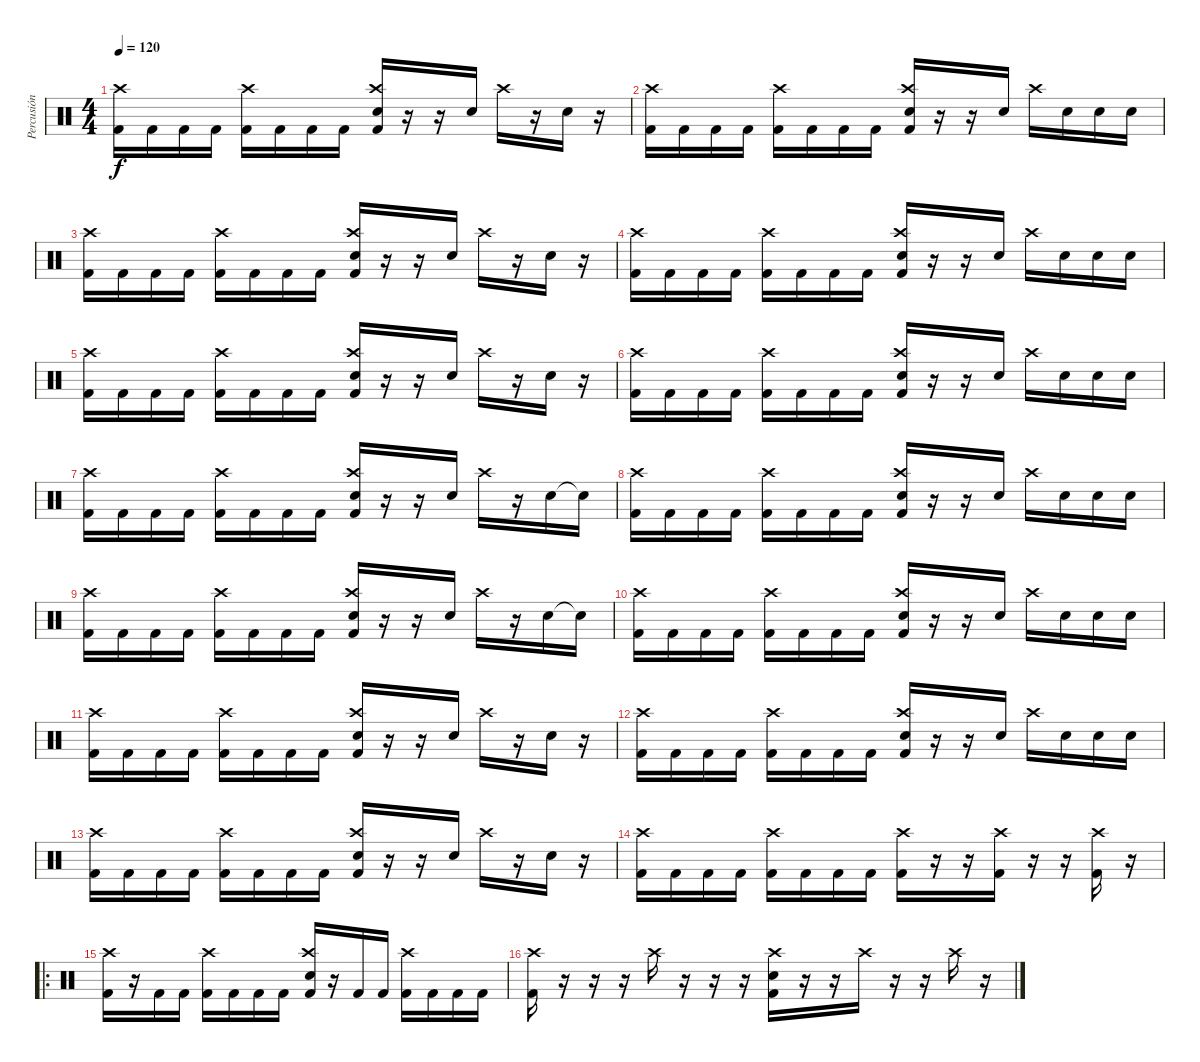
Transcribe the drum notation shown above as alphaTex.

\track ("Percusión" "Percusión") {instrument percussion}
\staff {score}
\articulation defaults
\ts (4 4)
\tempo 120
\clef neutral
\ks c
("Kick (hit) 2" "Crash high (hit)").16{dy f} "Kick (hit) 2".16 "Kick (hit) 2".16 "Kick (hit) 2".16 ("Kick (hit) 2" "Crash high (hit)").16 "Kick (hit) 2".16 "Kick (hit) 2".16 "Kick (hit) 2".16 ("Kick (hit) 2" "Crash high (hit)" "Electric Snare (hit)").16 r.16 r.16 "Electric Snare (hit)".16 "Crash high (hit)".16 r.16 "Electric Snare (hit)".16 r.16 |
("Kick (hit) 2" "Crash high (hit)").16 "Kick (hit) 2".16 "Kick (hit) 2".16 "Kick (hit) 2".16 ("Kick (hit) 2" "Crash high (hit)").16 "Kick (hit) 2".16 "Kick (hit) 2".16 "Kick (hit) 2".16 ("Kick (hit) 2" "Crash high (hit)" "Electric Snare (hit)").16 r.16 r.16 "Electric Snare (hit)".16 "Crash high (hit)".16 "Electric Snare (hit)".16 "Electric Snare (hit)".16 "Electric Snare (hit)".16 |
("Kick (hit) 2" "Crash high (hit)").16 "Kick (hit) 2".16 "Kick (hit) 2".16 "Kick (hit) 2".16 ("Kick (hit) 2" "Crash high (hit)").16 "Kick (hit) 2".16 "Kick (hit) 2".16 "Kick (hit) 2".16 ("Kick (hit) 2" "Crash high (hit)" "Electric Snare (hit)").16 r.16 r.16 "Electric Snare (hit)".16 "Crash high (hit)".16 r.16 "Electric Snare (hit)".16 r.16 |
("Kick (hit) 2" "Crash high (hit)").16 "Kick (hit) 2".16 "Kick (hit) 2".16 "Kick (hit) 2".16 ("Kick (hit) 2" "Crash high (hit)").16 "Kick (hit) 2".16 "Kick (hit) 2".16 "Kick (hit) 2".16 ("Kick (hit) 2" "Crash high (hit)" "Electric Snare (hit)").16 r.16 r.16 "Electric Snare (hit)".16 "Crash high (hit)".16 "Electric Snare (hit)".16 "Electric Snare (hit)".16 "Electric Snare (hit)".16 |
("Kick (hit) 2" "Crash high (hit)").16 "Kick (hit) 2".16 "Kick (hit) 2".16 "Kick (hit) 2".16 ("Kick (hit) 2" "Crash high (hit)").16 "Kick (hit) 2".16 "Kick (hit) 2".16 "Kick (hit) 2".16 ("Kick (hit) 2" "Crash high (hit)" "Electric Snare (hit)").16 r.16 r.16 "Electric Snare (hit)".16 "Crash high (hit)".16 r.16 "Electric Snare (hit)".16 r.16 |
("Kick (hit) 2" "Crash high (hit)").16 "Kick (hit) 2".16 "Kick (hit) 2".16 "Kick (hit) 2".16 ("Kick (hit) 2" "Crash high (hit)").16 "Kick (hit) 2".16 "Kick (hit) 2".16 "Kick (hit) 2".16 ("Kick (hit) 2" "Crash high (hit)" "Electric Snare (hit)").16 r.16 r.16 "Electric Snare (hit)".16 "Crash high (hit)".16 "Electric Snare (hit)".16 "Electric Snare (hit)".16 "Electric Snare (hit)".16 |
("Kick (hit) 2" "Crash high (hit)").16 "Kick (hit) 2".16 "Kick (hit) 2".16 "Kick (hit) 2".16 ("Kick (hit) 2" "Crash high (hit)").16 "Kick (hit) 2".16 "Kick (hit) 2".16 "Kick (hit) 2".16 ("Kick (hit) 2" "Crash high (hit)" "Electric Snare (hit)").16 r.16 r.16 "Electric Snare (hit)".16 "Crash high (hit)".16 r.16 "Electric Snare (hit)".16 "Snare (hit)"{t}.16 |
("Kick (hit) 2" "Crash high (hit)").16 "Kick (hit) 2".16 "Kick (hit) 2".16 "Kick (hit) 2".16 ("Kick (hit) 2" "Crash high (hit)").16 "Kick (hit) 2".16 "Kick (hit) 2".16 "Kick (hit) 2".16 ("Kick (hit) 2" "Crash high (hit)" "Electric Snare (hit)").16 r.16 r.16 "Electric Snare (hit)".16 "Crash high (hit)".16 "Electric Snare (hit)".16 "Electric Snare (hit)".16 "Electric Snare (hit)".16 |
("Kick (hit) 2" "Crash high (hit)").16 "Kick (hit) 2".16 "Kick (hit) 2".16 "Kick (hit) 2".16 ("Kick (hit) 2" "Crash high (hit)").16 "Kick (hit) 2".16 "Kick (hit) 2".16 "Kick (hit) 2".16 ("Kick (hit) 2" "Crash high (hit)" "Electric Snare (hit)").16 r.16 r.16 "Electric Snare (hit)".16 "Crash high (hit)".16 r.16 "Electric Snare (hit)".16 "Snare (hit)"{t}.16 |
("Kick (hit) 2" "Crash high (hit)").16 "Kick (hit) 2".16 "Kick (hit) 2".16 "Kick (hit) 2".16 ("Kick (hit) 2" "Crash high (hit)").16 "Kick (hit) 2".16 "Kick (hit) 2".16 "Kick (hit) 2".16 ("Kick (hit) 2" "Crash high (hit)" "Electric Snare (hit)").16 r.16 r.16 "Electric Snare (hit)".16 "Crash high (hit)".16 "Electric Snare (hit)".16 "Electric Snare (hit)".16 "Electric Snare (hit)".16 |
("Kick (hit) 2" "Crash high (hit)").16 "Kick (hit) 2".16 "Kick (hit) 2".16 "Kick (hit) 2".16 ("Kick (hit) 2" "Crash high (hit)").16 "Kick (hit) 2".16 "Kick (hit) 2".16 "Kick (hit) 2".16 ("Kick (hit) 2" "Crash high (hit)" "Electric Snare (hit)").16 r.16 r.16 "Electric Snare (hit)".16 "Crash high (hit)".16 r.16 "Electric Snare (hit)".16 r.16 |
("Kick (hit) 2" "Crash high (hit)").16 "Kick (hit) 2".16 "Kick (hit) 2".16 "Kick (hit) 2".16 ("Kick (hit) 2" "Crash high (hit)").16 "Kick (hit) 2".16 "Kick (hit) 2".16 "Kick (hit) 2".16 ("Kick (hit) 2" "Crash high (hit)" "Electric Snare (hit)").16 r.16 r.16 "Electric Snare (hit)".16 "Crash high (hit)".16 "Electric Snare (hit)".16 "Electric Snare (hit)".16 "Electric Snare (hit)".16 |
("Kick (hit) 2" "Crash high (hit)").16 "Kick (hit) 2".16 "Kick (hit) 2".16 "Kick (hit) 2".16 ("Kick (hit) 2" "Crash high (hit)").16 "Kick (hit) 2".16 "Kick (hit) 2".16 "Kick (hit) 2".16 ("Kick (hit) 2" "Crash high (hit)" "Electric Snare (hit)").16 r.16 r.16 "Electric Snare (hit)".16 "Crash high (hit)".16 r.16 "Electric Snare (hit)".16 r.16 |
("Kick (hit) 2" "Crash high (hit)").16 "Kick (hit) 2".16 "Kick (hit) 2".16 "Kick (hit) 2".16 ("Kick (hit) 2" "Crash high (hit)").16 "Kick (hit) 2".16 "Kick (hit) 2".16 "Kick (hit) 2".16 ("Kick (hit) 2" "Crash high (hit)").16 r.16 r.16 ("Kick (hit) 2" "Crash high (hit)").16 r.16 r.16 ("Kick (hit) 2" "Crash high (hit)").16 r.16 |
\ro
("Kick (hit) 2" "Crash high (hit)").16 r.16 "Kick (hit) 2".16 "Kick (hit) 2".16 ("Kick (hit) 2" "Crash high (hit)").16 "Kick (hit) 2".16 "Kick (hit) 2".16 "Kick (hit) 2".16 ("Kick (hit) 2" "Electric Snare (hit)" "Crash high (hit)").16 r.16 "Kick (hit) 2".16 "Kick (hit) 2".16 ("Kick (hit) 2" "Crash high (hit)").16 "Kick (hit) 2".16 "Kick (hit) 2".16 "Kick (hit) 2".16 |
("Kick (hit) 2" "Crash high (hit)").16 r.16 r.16 r.16 "Crash high (hit)".16 r.16 r.16 r.16 ("Kick (hit) 2" "Electric Snare (hit)" "Crash high (hit)").16 r.16 r.16 "Crash high (hit)".16 r.16 r.16 "Crash high (hit)".16 r.16
